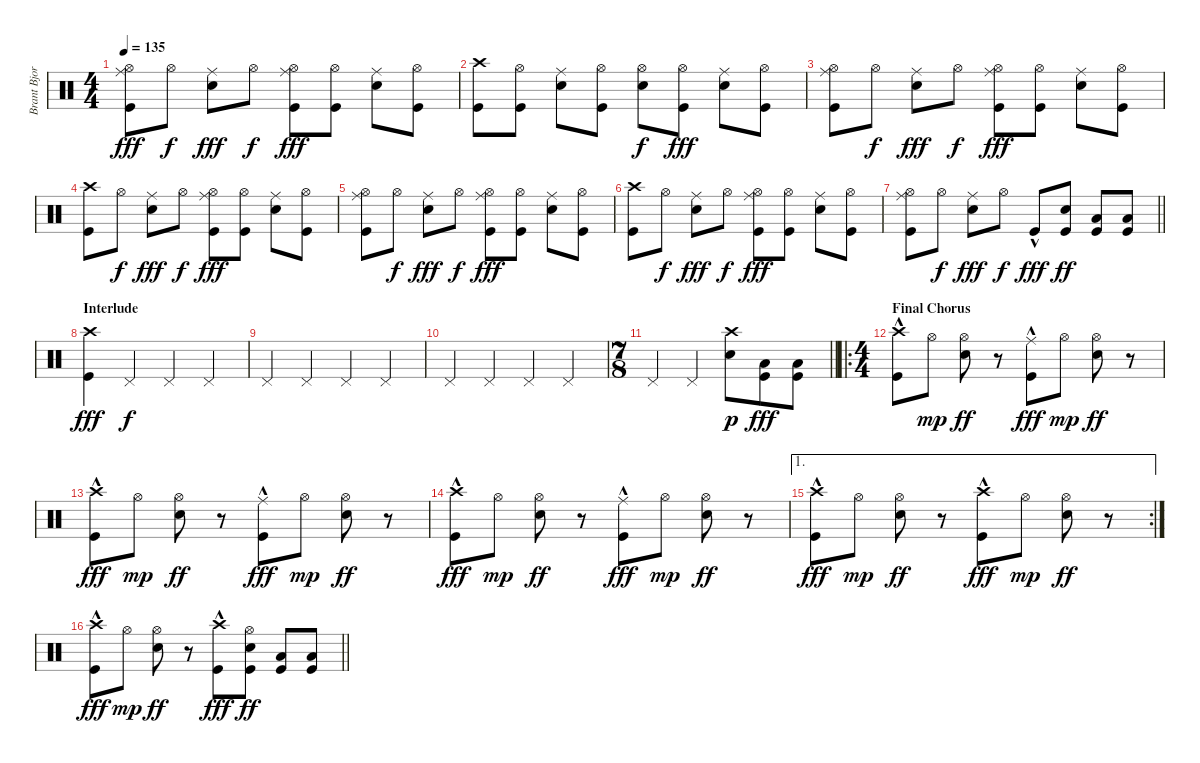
\track ("Brant Bjork" "Brant Bjor") {instrument percussion}
\staff {score}
\articulation defaults
\ts (4 4)
\tempo 135
\clef neutral
\ks c
("Hi-Hat (open)" "Ride (middle)" "Kick (hit)").8{dy fff} "Hi-Hat (open)".8{dy f} ("Ride (middle)" "Snare (hit) 2").8{dy fff} "Hi-Hat (open)".8{dy f} ("Hi-Hat (open)" "Ride (middle)" "Kick (hit)").8{dy fff} ("Hi-Hat (open)" "Kick (hit)").8 ("Ride (middle)" "Snare (hit) 2").8 ("Hi-Hat (open)" "Kick (hit)").8 |
("Crash high (hit)" "Kick (hit)").8 ("Hi-Hat (open)" "Kick (hit)").8 ("Ride (middle)" "Snare (hit) 2").8 ("Hi-Hat (open)" "Kick (hit)").8 ("Hi-Hat (open)" "Snare (hit) 2").8{dy f} ("Hi-Hat (open)" "Kick (hit)").8{dy fff} ("Ride (middle)" "Snare (hit) 2").8 ("Hi-Hat (open)" "Kick (hit)").8 |
("Hi-Hat (open)" "Ride (middle)" "Kick (hit)").8 "Hi-Hat (open)".8{dy f} ("Ride (middle)" "Snare (hit) 2").8{dy fff} "Hi-Hat (open)".8{dy f} ("Hi-Hat (open)" "Ride (middle)" "Kick (hit)").8{dy fff} ("Hi-Hat (open)" "Kick (hit)").8 ("Ride (middle)" "Snare (hit) 2").8 ("Hi-Hat (open)" "Kick (hit)").8 |
("Crash high (hit)" "Kick (hit)").8 "Hi-Hat (open)".8{dy f} ("Ride (middle)" "Snare (hit) 2").8{dy fff} "Hi-Hat (open)".8{dy f} ("Hi-Hat (open)" "Ride (middle)" "Kick (hit)").8{dy fff} ("Hi-Hat (open)" "Kick (hit)").8 ("Ride (middle)" "Snare (hit) 2").8 ("Hi-Hat (open)" "Kick (hit)").8 |
("Hi-Hat (open)" "Ride (middle)" "Kick (hit)").8 "Hi-Hat (open)".8{dy f} ("Ride (middle)" "Snare (hit) 2").8{dy fff} "Hi-Hat (open)".8{dy f} ("Hi-Hat (open)" "Ride (middle)" "Kick (hit)").8{dy fff} ("Hi-Hat (open)" "Kick (hit)").8 ("Ride (middle)" "Snare (hit) 2").8 ("Hi-Hat (open)" "Kick (hit)").8 |
("Crash high (hit)" "Kick (hit)").8 "Hi-Hat (open)".8{dy f} ("Ride (middle)" "Snare (hit) 2").8{dy fff} "Hi-Hat (open)".8{dy f} ("Hi-Hat (open)" "Ride (middle)" "Kick (hit)").8{dy fff} ("Hi-Hat (open)" "Kick (hit)").8 ("Ride (middle)" "Snare (hit) 2").8 ("Hi-Hat (open)" "Kick (hit)").8 |
\barLineRight lightlight
("Hi-Hat (open)" "Ride (middle)" "Kick (hit)").8 "Hi-Hat (open)".8{dy f} ("Ride (middle)" "Snare (hit) 2").8{dy fff} "Hi-Hat (open)".8{dy f} "Kick (hit)"{hac}.8{dy fff} ("Snare (hit) 2" "Kick (hit)").8{dy ff} ("Low Tom (hit)" "Kick (hit)").8 ("Low Tom (hit)" "Kick (hit)").8 |
\section ("" "Interlude")
("Crash high (hit)" "Kick (hit)").4{dy fff} "Pedal Hi-Hat (hit)".4{dy f} "Pedal Hi-Hat (hit)".4 "Pedal Hi-Hat (hit)".4 |
"Pedal Hi-Hat (hit)".4 "Pedal Hi-Hat (hit)".4 "Pedal Hi-Hat (hit)".4 "Pedal Hi-Hat (hit)".4 |
"Pedal Hi-Hat (hit)".4 "Pedal Hi-Hat (hit)".4 "Pedal Hi-Hat (hit)".4 "Pedal Hi-Hat (hit)".4 |
\ts (7 8)
\barLineRight lightlight "Pedal Hi-Hat (hit)".4 "Pedal Hi-Hat (hit)".4
("Crash high (hit)" "Snare (hit) 2").8{dy p} ("Low Tom (hit)" "Kick (hit)").8{dy fff} ("Low Tom (hit)" "Kick (hit)").8 |
\ro
\ts (4 4)
\section ("" "Final Chorus")
("Crash high (hit)" "Kick (hit)"{hac}).8 "Hi-Hat (open)".8{dy mp} ("Hi-Hat (open)" "Snare (hit) 2").8{dy ff} r.8 ("Ride (middle)" "Kick (hit)"{hac}).8{dy fff} "Hi-Hat (open)".8{dy mp} ("Hi-Hat (open)" "Snare (hit) 2").8{dy ff} r.8 |
("Crash high (hit)" "Kick (hit)"{hac}).8{dy fff} "Hi-Hat (open)".8{dy mp} ("Hi-Hat (open)" "Snare (hit) 2").8{dy ff} r.8 ("Ride (middle)" "Kick (hit)"{hac}).8{dy fff} "Hi-Hat (open)".8{dy mp} ("Hi-Hat (open)" "Snare (hit) 2").8{dy ff} r.8 |
("Crash high (hit)" "Kick (hit)"{hac}).8{dy fff} "Hi-Hat (open)".8{dy mp} ("Hi-Hat (open)" "Snare (hit) 2").8{dy ff} r.8 ("Ride (middle)" "Kick (hit)"{hac}).8{dy fff} "Hi-Hat (open)".8{dy mp} ("Hi-Hat (open)" "Snare (hit) 2").8{dy ff} r.8 |
\ae 1
\rc 2
("Crash high (hit)" "Kick (hit)"{hac}).8{dy fff} "Hi-Hat (open)".8{dy mp} ("Hi-Hat (open)" "Snare (hit) 2").8{dy ff} r.8 ("Crash high (hit)" "Kick (hit)"{hac}).8{dy fff} "Hi-Hat (open)".8{dy mp} ("Hi-Hat (open)" "Snare (hit) 2").8{dy ff} r.8 |
\barLineRight lightlight
("Crash high (hit)" "Kick (hit)"{hac}).8{dy fff} "Hi-Hat (open)".8{dy mp} ("Hi-Hat (open)" "Snare (hit) 2").8{dy ff} r.8 ("Crash high (hit)" "Kick (hit)"{hac}).8{dy fff} ("Hi-Hat (open)" "Snare (hit) 2" "Kick (hit)").8{dy ff} ("Low Tom (hit)" "Kick (hit)").8 ("Low Tom (hit)" "Kick (hit)").8
